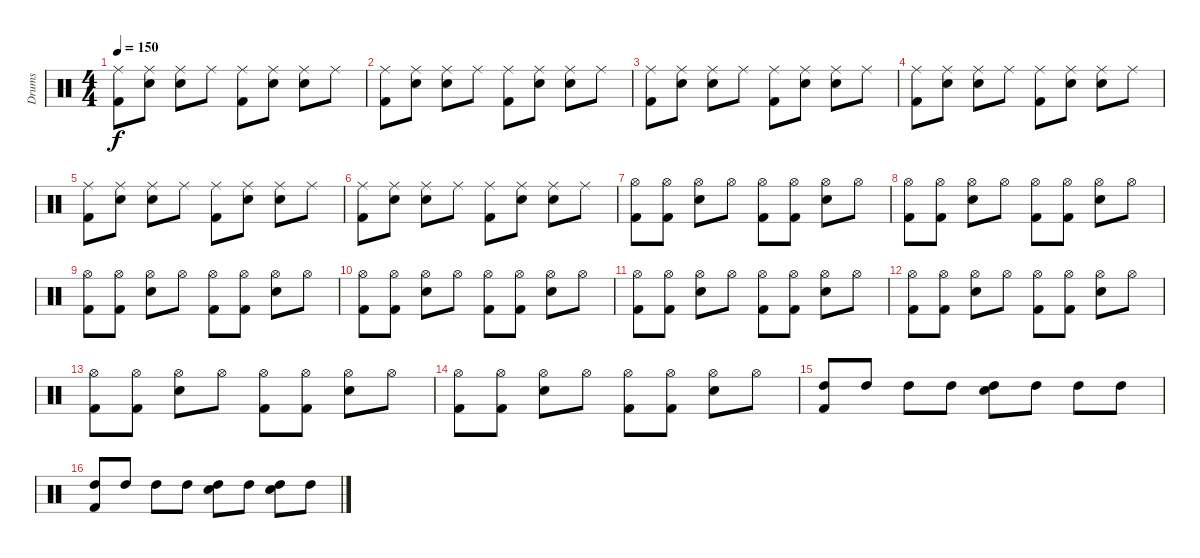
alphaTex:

\track ("Drums" "Drums") {instrument percussion}
\staff {score}
\articulation defaults
\ts (4 4)
\tempo 150
\clef neutral
\ks c
("Ride (middle)" "Kick (hit) 2").8{dy f} ("Ride (middle)" "Electric Snare (hit)").8 ("Ride (middle)" "Electric Snare (hit)").8 "Ride (middle)".8 ("Ride (middle)" "Kick (hit) 2").8 ("Ride (middle)" "Electric Snare (hit)").8 ("Ride (middle)" "Electric Snare (hit)").8 "Ride (middle)".8 |
("Ride (middle)" "Kick (hit) 2").8 ("Ride (middle)" "Electric Snare (hit)").8 ("Ride (middle)" "Electric Snare (hit)").8 "Ride (middle)".8 ("Ride (middle)" "Kick (hit) 2").8 ("Ride (middle)" "Electric Snare (hit)").8 ("Ride (middle)" "Electric Snare (hit)").8 "Ride (middle)".8 |
("Ride (middle)" "Kick (hit) 2").8 ("Ride (middle)" "Electric Snare (hit)").8 ("Ride (middle)" "Electric Snare (hit)").8 "Ride (middle)".8 ("Ride (middle)" "Kick (hit) 2").8 ("Ride (middle)" "Electric Snare (hit)").8 ("Ride (middle)" "Electric Snare (hit)").8 "Ride (middle)".8 |
("Ride (middle)" "Kick (hit) 2").8 ("Ride (middle)" "Electric Snare (hit)").8 ("Ride (middle)" "Electric Snare (hit)").8 "Ride (middle)".8 ("Ride (middle)" "Kick (hit) 2").8 ("Ride (middle)" "Electric Snare (hit)").8 ("Ride (middle)" "Electric Snare (hit)").8 "Ride (middle)".8 |
("Ride (middle)" "Kick (hit) 2").8 ("Ride (middle)" "Electric Snare (hit)").8 ("Ride (middle)" "Electric Snare (hit)").8 "Ride (middle)".8 ("Ride (middle)" "Kick (hit) 2").8 ("Ride (middle)" "Electric Snare (hit)").8 ("Ride (middle)" "Electric Snare (hit)").8 "Ride (middle)".8 |
("Ride (middle)" "Kick (hit) 2").8 ("Ride (middle)" "Electric Snare (hit)").8 ("Ride (middle)" "Electric Snare (hit)").8 "Ride (middle)".8 ("Ride (middle)" "Kick (hit) 2").8 ("Ride (middle)" "Electric Snare (hit)").8 ("Ride (middle)" "Electric Snare (hit)").8 "Ride (middle)".8 |
("Hi-Hat (open)" "Kick (hit) 2").8 ("Hi-Hat (open)" "Kick (hit) 2").8 ("Hi-Hat (open)" "Electric Snare (hit)").8 "Hi-Hat (open)".8 ("Hi-Hat (open)" "Kick (hit) 2").8 ("Hi-Hat (open)" "Kick (hit) 2").8 ("Hi-Hat (open)" "Electric Snare (hit)").8 "Hi-Hat (open)".8 |
("Hi-Hat (open)" "Kick (hit) 2").8 ("Hi-Hat (open)" "Kick (hit) 2").8 ("Hi-Hat (open)" "Electric Snare (hit)").8 "Hi-Hat (open)".8 ("Hi-Hat (open)" "Kick (hit) 2").8 ("Hi-Hat (open)" "Kick (hit) 2").8 ("Hi-Hat (open)" "Electric Snare (hit)").8 "Hi-Hat (open)".8 |
("Hi-Hat (open)" "Kick (hit) 2").8 ("Hi-Hat (open)" "Kick (hit) 2").8 ("Hi-Hat (open)" "Electric Snare (hit)").8 "Hi-Hat (open)".8 ("Hi-Hat (open)" "Kick (hit) 2").8 ("Hi-Hat (open)" "Kick (hit) 2").8 ("Hi-Hat (open)" "Electric Snare (hit)").8 "Hi-Hat (open)".8 |
("Hi-Hat (open)" "Kick (hit) 2").8 ("Hi-Hat (open)" "Kick (hit) 2").8 ("Hi-Hat (open)" "Electric Snare (hit)").8 "Hi-Hat (open)".8 ("Hi-Hat (open)" "Kick (hit) 2").8 ("Hi-Hat (open)" "Kick (hit) 2").8 ("Hi-Hat (open)" "Electric Snare (hit)").8 "Hi-Hat (open)".8 |
("Hi-Hat (open)" "Kick (hit) 2").8 ("Hi-Hat (open)" "Kick (hit) 2").8 ("Hi-Hat (open)" "Electric Snare (hit)").8 "Hi-Hat (open)".8 ("Hi-Hat (open)" "Kick (hit) 2").8 ("Hi-Hat (open)" "Kick (hit) 2").8 ("Hi-Hat (open)" "Electric Snare (hit)").8 "Hi-Hat (open)".8 |
("Hi-Hat (open)" "Kick (hit) 2").8 ("Hi-Hat (open)" "Kick (hit) 2").8 ("Hi-Hat (open)" "Electric Snare (hit)").8 "Hi-Hat (open)".8 ("Hi-Hat (open)" "Kick (hit) 2").8 ("Hi-Hat (open)" "Kick (hit) 2").8 ("Hi-Hat (open)" "Electric Snare (hit)").8 "Hi-Hat (open)".8 |
("Hi-Hat (open)" "Kick (hit) 2").8 ("Hi-Hat (open)" "Kick (hit) 2").8 ("Hi-Hat (open)" "Electric Snare (hit)").8 "Hi-Hat (open)".8 ("Hi-Hat (open)" "Kick (hit) 2").8 ("Hi-Hat (open)" "Kick (hit) 2").8 ("Hi-Hat (open)" "Electric Snare (hit)").8 "Hi-Hat (open)".8 |
("Hi-Hat (open)" "Kick (hit) 2").8 ("Hi-Hat (open)" "Kick (hit) 2").8 ("Hi-Hat (open)" "Electric Snare (hit)").8 "Hi-Hat (open)".8 ("Hi-Hat (open)" "Kick (hit) 2").8 ("Hi-Hat (open)" "Kick (hit) 2").8 ("Hi-Hat (open)" "Electric Snare (hit)").8 "Hi-Hat (open)".8 |
("High Tom (hit)" "Kick (hit) 2").8 "High Tom (hit)".8 "High Tom (hit)".8 "High Tom (hit)".8 ("High Tom (hit)" "Electric Snare (hit)").8 "High Tom (hit)".8 "High Tom (hit)".8 "High Tom (hit)".8 |
("High Tom (hit)" "Kick (hit) 2").8 "High Tom (hit)".8 "High Tom (hit)".8 "High Tom (hit)".8 ("High Tom (hit)" "Electric Snare (hit)").8 "High Tom (hit)".8 ("High Tom (hit)" "Electric Snare (hit)").8 "High Tom (hit)".8
